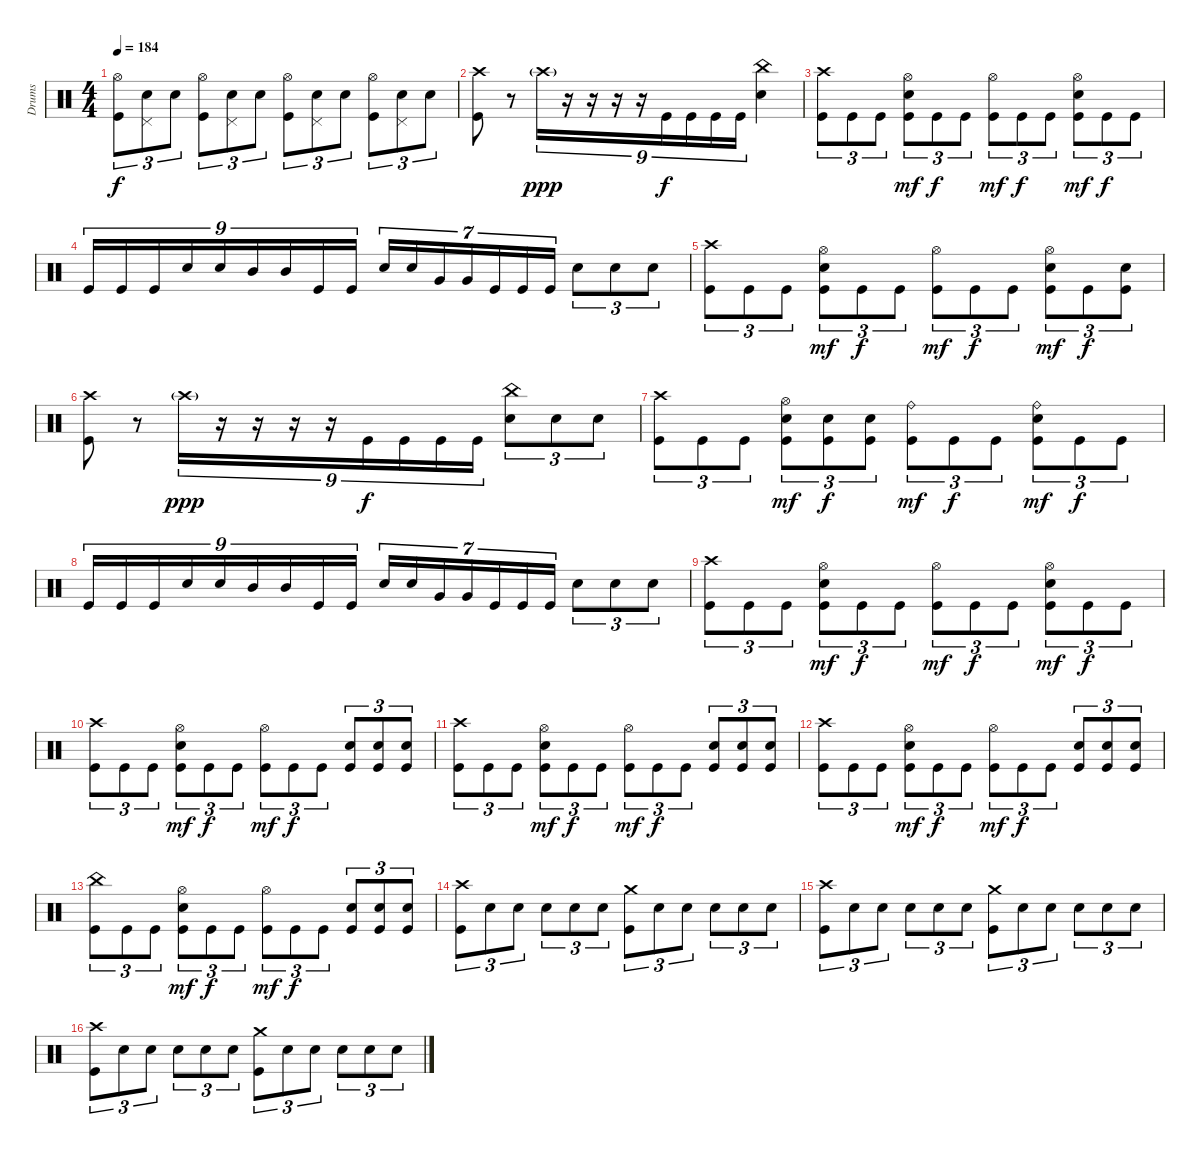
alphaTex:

\track ("Drums" "Drums") {instrument percussion}
\staff {score}
\articulation defaults
\ts (4 4)
\tempo 184
\clef neutral
\ks c
("Hi-Hat (open)" "Kick (hit)").8{tu (3 2) dy f} ("Pedal Hi-Hat (hit)" "Electric Snare (hit)").8{tu (3 2)} "Electric Snare (hit)".8{tu (3 2)} ("Hi-Hat (open)" "Kick (hit)").8{tu (3 2)} ("Pedal Hi-Hat (hit)" "Electric Snare (hit)").8{tu (3 2)} "Electric Snare (hit)".8{tu (3 2)} ("Hi-Hat (open)" "Kick (hit)").8{tu (3 2)} ("Pedal Hi-Hat (hit)" "Electric Snare (hit)").8{tu (3 2)} "Electric Snare (hit)".8{tu (3 2)} ("Hi-Hat (open)" "Kick (hit)").8{tu (3 2)} ("Pedal Hi-Hat (hit)" "Electric Snare (hit)").8{tu (3 2)} "Electric Snare (hit)".8{tu (3 2)} |
("Crash high (hit)" "Kick (hit)").8 r.8 "Crash high (hit)"{g}.16{tu (9 8) dy ppp} r.16{tu (9 8)} r.16{tu (9 8)} r.16{tu (9 8)} r.16{tu (9 8)} "Kick (hit)".16{tu (9 8) dy f} "Kick (hit)".16{tu (9 8)} "Kick (hit)".16{tu (9 8)} "Kick (hit)".16{tu (9 8)} ("China (hit)" "Electric Snare (hit)").4 |
("Crash high (hit)" "Kick (hit)").8{tu (3 2)} "Kick (hit)".8{tu (3 2)} "Kick (hit)".8{tu (3 2)} ("Hi-Hat (open)" "Electric Snare (hit)" "Kick (hit)").8{tu (3 2) dy mf} "Kick (hit)".8{tu (3 2) dy f} "Kick (hit)".8{tu (3 2)} ("Hi-Hat (open)" "Kick (hit)").8{tu (3 2) dy mf} "Kick (hit)".8{tu (3 2) dy f} "Kick (hit)".8{tu (3 2)} ("Hi-Hat (open)" "Electric Snare (hit)" "Kick (hit)").8{tu (3 2) dy mf} "Kick (hit)".8{tu (3 2) dy f} "Kick (hit)".8{tu (3 2)} |
"Kick (hit)".16{tu (9 8)} "Kick (hit)".16{tu (9 8)} "Kick (hit)".16{tu (9 8)} "Electric Snare (hit)".16{tu (9 8)} "Electric Snare (hit)".16{tu (9 8)} "Mid Tom (hit)".16{tu (9 8)} "Mid Tom (hit)".16{tu (9 8)} "Kick (hit)".16{tu (9 8)} "Kick (hit)".16{tu (9 8)} "Electric Snare (hit)".16{tu (7 4)} "Electric Snare (hit)".16{tu (7 4)} "Very Low Tom (hit)".16{tu (7 4)} "Very Low Tom (hit)".16{tu (7 4)} "Kick (hit)".16{tu (7 4)} "Kick (hit)".16{tu (7 4)} "Kick (hit)".16{tu (7 4)} "Electric Snare (hit)".8{tu (3 2)} "Electric Snare (hit)".8{tu (3 2)} "Electric Snare (hit)".8{tu (3 2)} |
("Crash high (hit)" "Kick (hit)").8{tu (3 2)} "Kick (hit)".8{tu (3 2)} "Kick (hit)".8{tu (3 2)} ("Hi-Hat (open)" "Electric Snare (hit)" "Kick (hit)").8{tu (3 2) dy mf} "Kick (hit)".8{tu (3 2) dy f} "Kick (hit)".8{tu (3 2)} ("Hi-Hat (open)" "Kick (hit)").8{tu (3 2) dy mf} "Kick (hit)".8{tu (3 2) dy f} "Kick (hit)".8{tu (3 2)} ("Hi-Hat (open)" "Electric Snare (hit)" "Kick (hit)").8{tu (3 2) dy mf} "Kick (hit)".8{tu (3 2) dy f} ("Electric Snare (hit)" "Kick (hit)").8{tu (3 2)} |
("Crash high (hit)" "Kick (hit)").8 r.8 "Crash high (hit)"{g}.16{tu (9 8) dy ppp} r.16{tu (9 8)} r.16{tu (9 8)} r.16{tu (9 8)} r.16{tu (9 8)} "Kick (hit)".16{tu (9 8) dy f} "Kick (hit)".16{tu (9 8)} "Kick (hit)".16{tu (9 8)} "Kick (hit)".16{tu (9 8)} ("China (hit)" "Electric Snare (hit)").8{tu (3 2)} "Electric Snare (hit)".8{tu (3 2)} "Electric Snare (hit)".8{tu (3 2)} |
("Crash high (hit)" "Kick (hit)").8{tu (3 2)} "Kick (hit)".8{tu (3 2)} "Kick (hit)".8{tu (3 2)} ("Hi-Hat (open)" "Electric Snare (hit)" "Kick (hit)").8{tu (3 2) dy mf} ("Electric Snare (hit)" "Kick (hit)").8{tu (3 2) dy f} ("Electric Snare (hit)" "Kick (hit)").8{tu (3 2)} ("Ride (bell)" "Kick (hit)").8{tu (3 2) dy mf} "Kick (hit)".8{tu (3 2) dy f} "Kick (hit)".8{tu (3 2)} ("Ride (bell)" "Electric Snare (hit)" "Kick (hit)").8{tu (3 2) dy mf} "Kick (hit)".8{tu (3 2) dy f} "Kick (hit)".8{tu (3 2)} |
"Kick (hit)".16{tu (9 8)} "Kick (hit)".16{tu (9 8)} "Kick (hit)".16{tu (9 8)} "Electric Snare (hit)".16{tu (9 8)} "Electric Snare (hit)".16{tu (9 8)} "Mid Tom (hit)".16{tu (9 8)} "Mid Tom (hit)".16{tu (9 8)} "Kick (hit)".16{tu (9 8)} "Kick (hit)".16{tu (9 8)} "Electric Snare (hit)".16{tu (7 4)} "Electric Snare (hit)".16{tu (7 4)} "Very Low Tom (hit)".16{tu (7 4)} "Very Low Tom (hit)".16{tu (7 4)} "Kick (hit)".16{tu (7 4)} "Kick (hit)".16{tu (7 4)} "Kick (hit)".16{tu (7 4)} "Electric Snare (hit)".8{tu (3 2)} "Electric Snare (hit)".8{tu (3 2)} "Electric Snare (hit)".8{tu (3 2)} |
("Crash high (hit)" "Kick (hit)").8{tu (3 2)} "Kick (hit)".8{tu (3 2)} "Kick (hit)".8{tu (3 2)} ("Hi-Hat (open)" "Electric Snare (hit)" "Kick (hit)").8{tu (3 2) dy mf} "Kick (hit)".8{tu (3 2) dy f} "Kick (hit)".8{tu (3 2)} ("Hi-Hat (open)" "Kick (hit)").8{tu (3 2) dy mf} "Kick (hit)".8{tu (3 2) dy f} "Kick (hit)".8{tu (3 2)} ("Hi-Hat (open)" "Electric Snare (hit)" "Kick (hit)").8{tu (3 2) dy mf} "Kick (hit)".8{tu (3 2) dy f} "Kick (hit)".8{tu (3 2)} |
("Crash high (hit)" "Kick (hit)").8{tu (3 2)} "Kick (hit)".8{tu (3 2)} "Kick (hit)".8{tu (3 2)} ("Hi-Hat (open)" "Electric Snare (hit)" "Kick (hit)").8{tu (3 2) dy mf} "Kick (hit)".8{tu (3 2) dy f} "Kick (hit)".8{tu (3 2)} ("Hi-Hat (open)" "Kick (hit)").8{tu (3 2) dy mf} "Kick (hit)".8{tu (3 2) dy f} "Kick (hit)".8{tu (3 2)} ("Electric Snare (hit)" "Kick (hit)").8{tu (3 2)} ("Electric Snare (hit)" "Kick (hit)").8{tu (3 2)} ("Electric Snare (hit)" "Kick (hit)").8{tu (3 2)} |
("Crash high (hit)" "Kick (hit)").8{tu (3 2)} "Kick (hit)".8{tu (3 2)} "Kick (hit)".8{tu (3 2)} ("Hi-Hat (open)" "Electric Snare (hit)" "Kick (hit)").8{tu (3 2) dy mf} "Kick (hit)".8{tu (3 2) dy f} "Kick (hit)".8{tu (3 2)} ("Hi-Hat (open)" "Kick (hit)").8{tu (3 2) dy mf} "Kick (hit)".8{tu (3 2) dy f} "Kick (hit)".8{tu (3 2)} ("Electric Snare (hit)" "Kick (hit)").8{tu (3 2)} ("Electric Snare (hit)" "Kick (hit)").8{tu (3 2)} ("Electric Snare (hit)" "Kick (hit)").8{tu (3 2)} |
("Crash high (hit)" "Kick (hit)").8{tu (3 2)} "Kick (hit)".8{tu (3 2)} "Kick (hit)".8{tu (3 2)} ("Hi-Hat (open)" "Electric Snare (hit)" "Kick (hit)").8{tu (3 2) dy mf} "Kick (hit)".8{tu (3 2) dy f} "Kick (hit)".8{tu (3 2)} ("Hi-Hat (open)" "Kick (hit)").8{tu (3 2) dy mf} "Kick (hit)".8{tu (3 2) dy f} "Kick (hit)".8{tu (3 2)} ("Electric Snare (hit)" "Kick (hit)").8{tu (3 2)} ("Electric Snare (hit)" "Kick (hit)").8{tu (3 2)} ("Electric Snare (hit)" "Kick (hit)").8{tu (3 2)} |
("China (hit)" "Kick (hit)").8{tu (3 2)} "Kick (hit)".8{tu (3 2)} "Kick (hit)".8{tu (3 2)} ("Hi-Hat (open)" "Electric Snare (hit)" "Kick (hit)").8{tu (3 2) dy mf} "Kick (hit)".8{tu (3 2) dy f} "Kick (hit)".8{tu (3 2)} ("Hi-Hat (open)" "Kick (hit)").8{tu (3 2) dy mf} "Kick (hit)".8{tu (3 2) dy f} "Kick (hit)".8{tu (3 2)} ("Electric Snare (hit)" "Kick (hit)").8{tu (3 2)} ("Electric Snare (hit)" "Kick (hit)").8{tu (3 2)} ("Electric Snare (hit)" "Kick (hit)").8{tu (3 2)} |
("Crash high (hit)" "Kick (hit)").8{tu (3 2)} "Electric Snare (hit)".8{tu (3 2)} "Electric Snare (hit)".8{tu (3 2)} "Electric Snare (hit)".8{tu (3 2)} "Electric Snare (hit)".8{tu (3 2)} "Electric Snare (hit)".8{tu (3 2)} ("Crash medium (hit)" "Kick (hit)").8{tu (3 2)} "Electric Snare (hit)".8{tu (3 2)} "Electric Snare (hit)".8{tu (3 2)} "Electric Snare (hit)".8{tu (3 2)} "Electric Snare (hit)".8{tu (3 2)} "Electric Snare (hit)".8{tu (3 2)} |
("Crash high (hit)" "Kick (hit)").8{tu (3 2)} "Electric Snare (hit)".8{tu (3 2)} "Electric Snare (hit)".8{tu (3 2)} "Electric Snare (hit)".8{tu (3 2)} "Electric Snare (hit)".8{tu (3 2)} "Electric Snare (hit)".8{tu (3 2)} ("Crash medium (hit)" "Kick (hit)").8{tu (3 2)} "Electric Snare (hit)".8{tu (3 2)} "Electric Snare (hit)".8{tu (3 2)} "Electric Snare (hit)".8{tu (3 2)} "Electric Snare (hit)".8{tu (3 2)} "Electric Snare (hit)".8{tu (3 2)} |
("Crash high (hit)" "Kick (hit)").8{tu (3 2)} "Electric Snare (hit)".8{tu (3 2)} "Electric Snare (hit)".8{tu (3 2)} "Electric Snare (hit)".8{tu (3 2)} "Electric Snare (hit)".8{tu (3 2)} "Electric Snare (hit)".8{tu (3 2)} ("Crash medium (hit)" "Kick (hit)").8{tu (3 2)} "Electric Snare (hit)".8{tu (3 2)} "Electric Snare (hit)".8{tu (3 2)} "Electric Snare (hit)".8{tu (3 2)} "Electric Snare (hit)".8{tu (3 2)} "Electric Snare (hit)".8{tu (3 2)}
